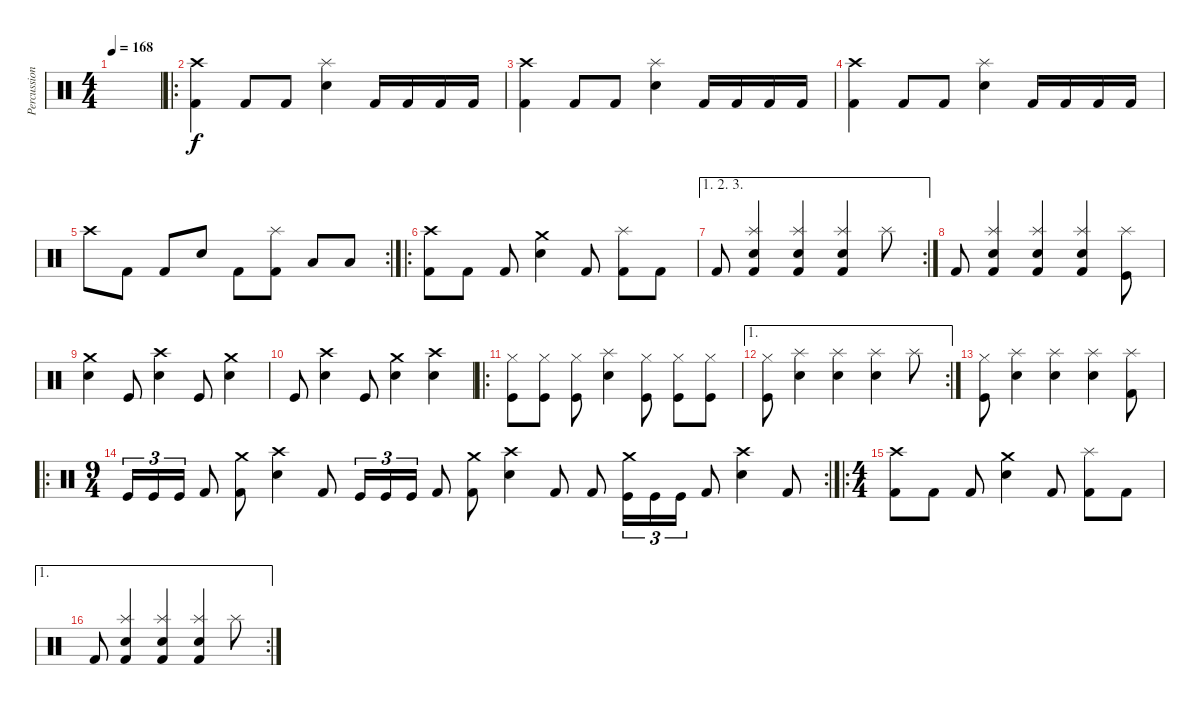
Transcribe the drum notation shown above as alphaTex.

\track ("Percussion" "Percussion") {instrument percussion}
\staff {score}
\articulation defaults
\ts (4 4)
\tempo 168
\clef neutral
\ks c
|
\ro
("Crash high (hit)" "Kick (hit) 2").4 "Kick (hit) 2".8 "Kick (hit) 2".8 ("Splash (hit)" "Electric Snare (hit)").4 "Kick (hit) 2".16 "Kick (hit) 2".16 "Kick (hit) 2".16 "Kick (hit) 2".16 |
("Crash high (hit)" "Kick (hit) 2").4 "Kick (hit) 2".8 "Kick (hit) 2".8 ("Splash (hit)" "Electric Snare (hit)").4 "Kick (hit) 2".16 "Kick (hit) 2".16 "Kick (hit) 2".16 "Kick (hit) 2".16 |
("Crash high (hit)" "Kick (hit) 2").4 "Kick (hit) 2".8 "Kick (hit) 2".8 ("Splash (hit)" "Electric Snare (hit)").4 "Kick (hit) 2".16 "Kick (hit) 2".16 "Kick (hit) 2".16 "Kick (hit) 2".16 |
\rc 2 "Crash high (hit)".8 "Kick (hit) 2".8 "Kick (hit) 2".8 "Electric Snare (hit)".8 "Kick (hit) 2".8
("Splash (hit)" "Kick (hit) 2").8 "Low Floor Tom (hit)".8 "Low Floor Tom (hit)".8 |
\ro
("Crash high (hit)" "Kick (hit) 2").8 "Kick (hit) 2".8 "Kick (hit) 2".8 ("Crash medium (hit)" "Electric Snare (hit)").4 "Kick (hit) 2".8 ("Splash (hit)" "Kick (hit) 2").8 "Kick (hit) 2".8 |
\ae (1 2 3)
\rc 2 "Kick (hit) 2".8
("Splash (hit)" "Electric Snare (hit)" "Kick (hit) 2").4 ("Splash (hit)" "Electric Snare (hit)" "Kick (hit) 2").4 ("Splash (hit)" "Electric Snare (hit)" "Kick (hit) 2").4 "Splash (hit)".8 |
"Kick (hit) 2".8 ("Splash (hit)" "Electric Snare (hit)" "Kick (hit) 2").4 ("Splash (hit)" "Electric Snare (hit)" "Kick (hit) 2").4 ("Splash (hit)" "Electric Snare (hit)" "Kick (hit) 2").4 ("Splash (hit)" "Kick (hit)").8 |
("Crash medium (hit)" "Electric Snare (hit)").4 "Kick (hit)".8 ("Crash high (hit)" "Electric Snare (hit)").4 "Kick (hit)".8 ("Crash medium (hit)" "Electric Snare (hit)").4 |
"Kick (hit)".8 ("Crash high (hit)" "Electric Snare (hit)").4 "Kick (hit)".8 ("Crash medium (hit)" "Electric Snare (hit)").4 ("Crash high (hit)" "Electric Snare (hit)").4 |
\ro
("Hi-Hat (closed)" "Kick (hit)").8 ("Hi-Hat (closed)" "Kick (hit)").8 ("Hi-Hat (closed)" "Kick (hit)").8 ("Splash (hit)" "Electric Snare (hit)").4 ("Hi-Hat (closed)" "Kick (hit)").8 ("Hi-Hat (closed)" "Kick (hit)").8 ("Hi-Hat (closed)" "Kick (hit)").8 |
\ae 1
\rc 2
("Hi-Hat (closed)" "Kick (hit)").8 ("Splash (hit)" "Electric Snare (hit)").4 ("Splash (hit)" "Electric Snare (hit)").4 ("Splash (hit)" "Electric Snare (hit)").4 "Splash (hit)".8 |
("Hi-Hat (closed)" "Kick (hit)").8 ("Splash (hit)" "Electric Snare (hit)").4 ("Splash (hit)" "Electric Snare (hit)").4 ("Splash (hit)" "Electric Snare (hit)").4 ("Splash (hit)" "Kick (hit) 2").8 |
\ro
\rc 2
\ts (9 4)
"Kick (hit)".16{tu (3 2)} "Kick (hit)".16{tu (3 2)} "Kick (hit)".16{tu (3 2)} "Kick (hit) 2".8 ("Crash medium (hit)" "Kick (hit) 2").8 ("Crash high (hit)" "Electric Snare (hit)").4 "Kick (hit) 2".8 "Kick (hit)".16{tu (3 2)} "Kick (hit)".16{tu (3 2)} "Kick (hit)".16{tu (3 2)} "Kick (hit) 2".8 ("Crash medium (hit)" "Kick (hit) 2").8 ("Crash high (hit)" "Electric Snare (hit)").4 "Kick (hit) 2".8 "Kick (hit) 2".8 ("Crash medium (hit)" "Kick (hit)").16{tu (3 2)} "Kick (hit)".16{tu (3 2)} "Kick (hit)".16{tu (3 2)} "Kick (hit) 2".8 ("Crash high (hit)" "Electric Snare (hit)").4 "Kick (hit) 2".8 |
\ro
\ts (4 4)
("Crash high (hit)" "Kick (hit) 2").8 "Kick (hit) 2".8 "Kick (hit) 2".8 ("Crash medium (hit)" "Electric Snare (hit)").4 "Kick (hit) 2".8 ("Splash (hit)" "Kick (hit) 2").8 "Kick (hit) 2".8 |
\ae 1
\rc 2 "Kick (hit) 2".8
("Splash (hit)" "Electric Snare (hit)" "Kick (hit) 2").4 ("Splash (hit)" "Electric Snare (hit)" "Kick (hit) 2").4 ("Splash (hit)" "Electric Snare (hit)" "Kick (hit) 2").4 "Splash (hit)".8
